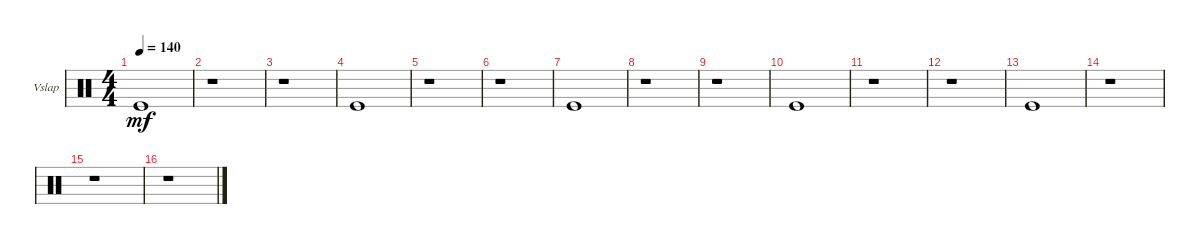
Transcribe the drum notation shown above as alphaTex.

\defaultSystemsLayout 4
\bracketExtendMode groupsimilarinstruments
\firstSystemTrackNameOrientation horizontal
\otherSystemsTrackNameOrientation horizontal
\track ("Vibraslap" "Vslap") {instrument percussion}
\staff {score}
\articulation defaults
\ts (4 4)
\tempo 140
\clef neutral
\scale
0.25
\ks c "Kick (hit)".1{dy mf}
|
\scale
0.25 r.1 |
\scale
0.25 r.1 |
\scale
0.25 "Kick (hit)".1 |
\scale
0.25 r.1 |
\scale
0.25 r.1 |
\scale
0.25 "Kick (hit)".1 |
\scale
0.25 r.1 |
\scale
0.25 r.1 |
\scale
0.25 "Kick (hit)".1 |
\scale
0.25 r.1 |
\scale
0.25 r.1 |
\scale
0.25 "Kick (hit)".1 |
\scale
0.25 r.1 |
\scale
0.25 r.1 |
\scale
0.25 r.1
